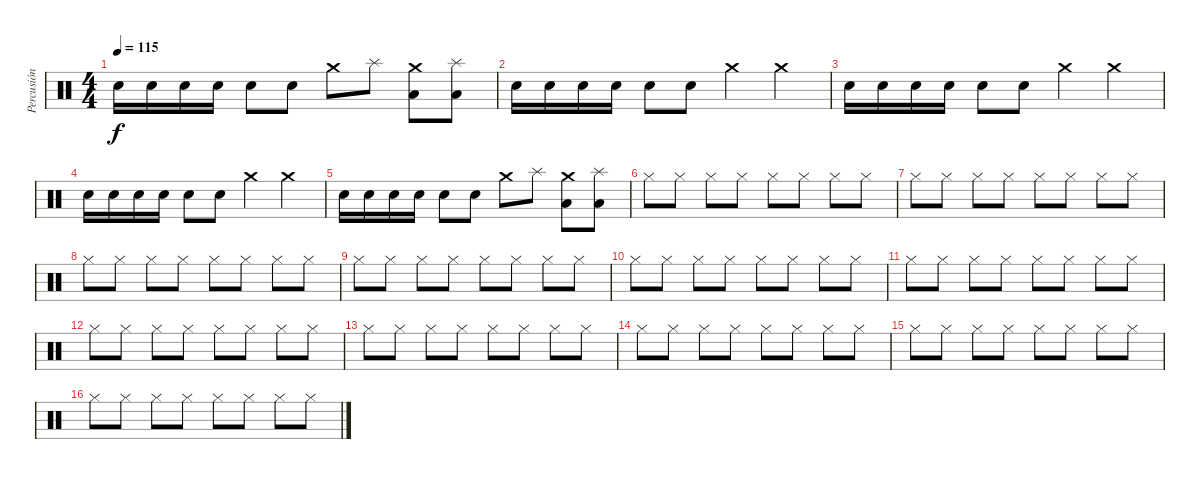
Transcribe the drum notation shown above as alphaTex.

\track ("Percusión" "Percusión") {instrument percussion}
\staff {score}
\articulation defaults
\ts (4 4)
\tempo 115
\clef neutral
\ks c "Snare (hit) 2".16{dy f} "Snare (hit) 2".16 "Snare (hit) 2".16 "Snare (hit) 2".16 "Snare (hit) 2".8 "Snare (hit) 2".8 "Crash medium (hit)".8 "Splash (hit)".8
("Crash medium (hit)" "Low Floor Tom (hit)").8 ("Splash (hit)" "Low Floor Tom (hit)").8 |
"Snare (hit) 2".16 "Snare (hit) 2".16 "Snare (hit) 2".16 "Snare (hit) 2".16 "Snare (hit) 2".8 "Snare (hit) 2".8 "Crash medium (hit)".4 "Crash medium (hit)".4 |
"Snare (hit) 2".16 "Snare (hit) 2".16 "Snare (hit) 2".16 "Snare (hit) 2".16 "Snare (hit) 2".8 "Snare (hit) 2".8 "Crash medium (hit)".4 "Crash medium (hit)".4 |
"Snare (hit) 2".16 "Snare (hit) 2".16 "Snare (hit) 2".16 "Snare (hit) 2".16 "Snare (hit) 2".8 "Snare (hit) 2".8 "Crash medium (hit)".4 "Crash medium (hit)".4 |
"Snare (hit) 2".16 "Snare (hit) 2".16 "Snare (hit) 2".16 "Snare (hit) 2".16 "Snare (hit) 2".8 "Snare (hit) 2".8 "Crash medium (hit)".8 "Splash (hit)".8 ("Crash medium (hit)" "Low Floor Tom (hit)").8 ("Splash (hit)" "Low Floor Tom (hit)").8 |
"Hi-Hat (closed)".8 "Hi-Hat (closed)".8 "Hi-Hat (closed)".8 "Hi-Hat (closed)".8 "Hi-Hat (closed)".8 "Hi-Hat (closed)".8 "Hi-Hat (closed)".8 "Hi-Hat (closed)".8 |
"Hi-Hat (closed)".8 "Hi-Hat (closed)".8 "Hi-Hat (closed)".8 "Hi-Hat (closed)".8 "Hi-Hat (closed)".8 "Hi-Hat (closed)".8 "Hi-Hat (closed)".8 "Hi-Hat (closed)".8 |
"Hi-Hat (closed)".8 "Hi-Hat (closed)".8 "Hi-Hat (closed)".8 "Hi-Hat (closed)".8 "Hi-Hat (closed)".8 "Hi-Hat (closed)".8 "Hi-Hat (closed)".8 "Hi-Hat (closed)".8 |
"Hi-Hat (closed)".8 "Hi-Hat (closed)".8 "Hi-Hat (closed)".8 "Hi-Hat (closed)".8 "Hi-Hat (closed)".8 "Hi-Hat (closed)".8 "Hi-Hat (closed)".8 "Hi-Hat (closed)".8 |
"Hi-Hat (closed)".8 "Hi-Hat (closed)".8 "Hi-Hat (closed)".8 "Hi-Hat (closed)".8 "Hi-Hat (closed)".8 "Hi-Hat (closed)".8 "Hi-Hat (closed)".8 "Hi-Hat (closed)".8 |
"Hi-Hat (closed)".8 "Hi-Hat (closed)".8 "Hi-Hat (closed)".8 "Hi-Hat (closed)".8 "Hi-Hat (closed)".8 "Hi-Hat (closed)".8 "Hi-Hat (closed)".8 "Hi-Hat (closed)".8 |
"Hi-Hat (closed)".8 "Hi-Hat (closed)".8 "Hi-Hat (closed)".8 "Hi-Hat (closed)".8 "Hi-Hat (closed)".8 "Hi-Hat (closed)".8 "Hi-Hat (closed)".8 "Hi-Hat (closed)".8 |
"Hi-Hat (closed)".8 "Hi-Hat (closed)".8 "Hi-Hat (closed)".8 "Hi-Hat (closed)".8 "Hi-Hat (closed)".8 "Hi-Hat (closed)".8 "Hi-Hat (closed)".8 "Hi-Hat (closed)".8 |
"Hi-Hat (closed)".8 "Hi-Hat (closed)".8 "Hi-Hat (closed)".8 "Hi-Hat (closed)".8 "Hi-Hat (closed)".8 "Hi-Hat (closed)".8 "Hi-Hat (closed)".8 "Hi-Hat (closed)".8 |
"Hi-Hat (closed)".8 "Hi-Hat (closed)".8 "Hi-Hat (closed)".8 "Hi-Hat (closed)".8 "Hi-Hat (closed)".8 "Hi-Hat (closed)".8 "Hi-Hat (closed)".8 "Hi-Hat (closed)".8 |
"Hi-Hat (closed)".8 "Hi-Hat (closed)".8 "Hi-Hat (closed)".8 "Hi-Hat (closed)".8 "Hi-Hat (closed)".8 "Hi-Hat (closed)".8 "Hi-Hat (closed)".8 "Hi-Hat (closed)".8
